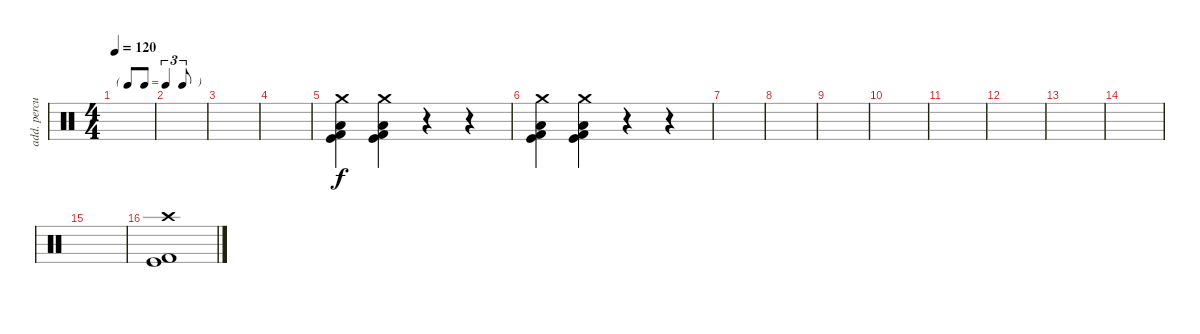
\track ("add. percussion" "add. percu") {instrument percussion}
\staff {score}
\articulation defaults
\ts (4 4)
\tf triplet8th
\tempo 120
\clef neutral
\ks c
|
|
|
|
("Crash medium (hit)" "Low Floor Tom (hit)" "Kick (hit) 2" "Kick (hit)").4 ("Crash medium (hit)" "Low Floor Tom (hit)" "Kick (hit)" "Kick (hit) 2").4 r.4 r.4 |
("Crash medium (hit)" "Low Floor Tom (hit)" "Kick (hit) 2" "Kick (hit)").4 ("Crash medium (hit)" "Low Floor Tom (hit)" "Kick (hit)" "Kick (hit) 2").4 r.4 r.4 |
|
|
|
|
|
|
|
|
|
("Crash high (hit)" "Kick (hit) 2" "Kick (hit)").1
